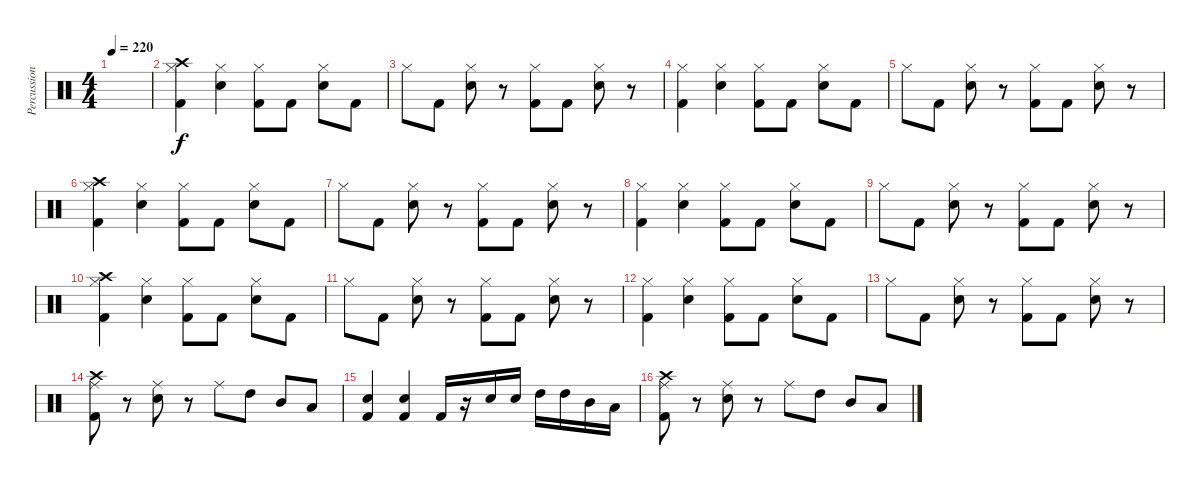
\track ("Percussions" "Percussion") {instrument percussion}
\staff {score}
\articulation defaults
\ts (4 4)
\tempo 220
\clef neutral
\ks c
|
("Crash high (hit)" "Hi-Hat (closed)" "Kick (hit) 2").4 ("Hi-Hat (closed)" "Electric Snare (hit)").4 ("Hi-Hat (closed)" "Kick (hit) 2").8 "Kick (hit) 2".8 ("Hi-Hat (closed)" "Electric Snare (hit)").8 "Kick (hit) 2".8 |
"Hi-Hat (closed)".8 "Kick (hit) 2".8 ("Hi-Hat (closed)" "Electric Snare (hit)").8 r.8 ("Hi-Hat (closed)" "Kick (hit) 2").8 "Kick (hit) 2".8 ("Hi-Hat (closed)" "Electric Snare (hit)").8 r.8 |
("Hi-Hat (closed)" "Kick (hit) 2").4 ("Hi-Hat (closed)" "Electric Snare (hit)").4 ("Hi-Hat (closed)" "Kick (hit) 2").8 "Kick (hit) 2".8 ("Hi-Hat (closed)" "Electric Snare (hit)").8 "Kick (hit) 2".8 |
"Hi-Hat (closed)".8 "Kick (hit) 2".8 ("Hi-Hat (closed)" "Electric Snare (hit)").8 r.8 ("Hi-Hat (closed)" "Kick (hit) 2").8 "Kick (hit) 2".8 ("Hi-Hat (closed)" "Electric Snare (hit)").8 r.8 |
("Crash high (hit)" "Hi-Hat (closed)" "Kick (hit) 2").4 ("Hi-Hat (closed)" "Electric Snare (hit)").4 ("Hi-Hat (closed)" "Kick (hit) 2").8 "Kick (hit) 2".8 ("Hi-Hat (closed)" "Electric Snare (hit)").8 "Kick (hit) 2".8 |
"Hi-Hat (closed)".8 "Kick (hit) 2".8 ("Hi-Hat (closed)" "Electric Snare (hit)").8 r.8 ("Hi-Hat (closed)" "Kick (hit) 2").8 "Kick (hit) 2".8 ("Hi-Hat (closed)" "Electric Snare (hit)").8 r.8 |
("Hi-Hat (closed)" "Kick (hit) 2").4 ("Hi-Hat (closed)" "Electric Snare (hit)").4 ("Hi-Hat (closed)" "Kick (hit) 2").8 "Kick (hit) 2".8 ("Hi-Hat (closed)" "Electric Snare (hit)").8 "Kick (hit) 2".8 |
"Hi-Hat (closed)".8 "Kick (hit) 2".8 ("Hi-Hat (closed)" "Electric Snare (hit)").8 r.8 ("Hi-Hat (closed)" "Kick (hit) 2").8 "Kick (hit) 2".8 ("Hi-Hat (closed)" "Electric Snare (hit)").8 r.8 |
("Crash high (hit)" "Hi-Hat (closed)" "Kick (hit) 2").4 ("Hi-Hat (closed)" "Electric Snare (hit)").4 ("Hi-Hat (closed)" "Kick (hit) 2").8 "Kick (hit) 2".8 ("Hi-Hat (closed)" "Electric Snare (hit)").8 "Kick (hit) 2".8 |
"Hi-Hat (closed)".8 "Kick (hit) 2".8 ("Hi-Hat (closed)" "Electric Snare (hit)").8 r.8 ("Hi-Hat (closed)" "Kick (hit) 2").8 "Kick (hit) 2".8 ("Hi-Hat (closed)" "Electric Snare (hit)").8 r.8 |
("Hi-Hat (closed)" "Kick (hit) 2").4 ("Hi-Hat (closed)" "Electric Snare (hit)").4 ("Hi-Hat (closed)" "Kick (hit) 2").8 "Kick (hit) 2".8 ("Hi-Hat (closed)" "Electric Snare (hit)").8 "Kick (hit) 2".8 |
"Hi-Hat (closed)".8 "Kick (hit) 2".8 ("Hi-Hat (closed)" "Electric Snare (hit)").8 r.8 ("Hi-Hat (closed)" "Kick (hit) 2").8 "Kick (hit) 2".8 ("Hi-Hat (closed)" "Electric Snare (hit)").8 r.8 |
("Crash high (hit)" "Ride (middle)" "Kick (hit) 2").8 r.8 ("Ride (middle)" "Electric Snare (hit)").8 r.8 "Ride (middle)".8 "High Tom (hit)".8 "Mid Tom (hit)".8 "Low Tom (hit)".8 |
("Electric Snare (hit)" "Kick (hit) 2").4 ("Electric Snare (hit)" "Kick (hit) 2").4 "Kick (hit) 2".16 r.16 "Electric Snare (hit)".16 "Electric Snare (hit)".16 "High Tom (hit)".16 "High Tom (hit)".16 "Mid Tom (hit)".16 "Low Tom (hit)".16 |
("Crash high (hit)" "Ride (middle)" "Kick (hit) 2").8 r.8 ("Ride (middle)" "Electric Snare (hit)").8 r.8 "Ride (middle)".8 "High Tom (hit)".8 "Mid Tom (hit)".8 "Low Tom (hit)".8
